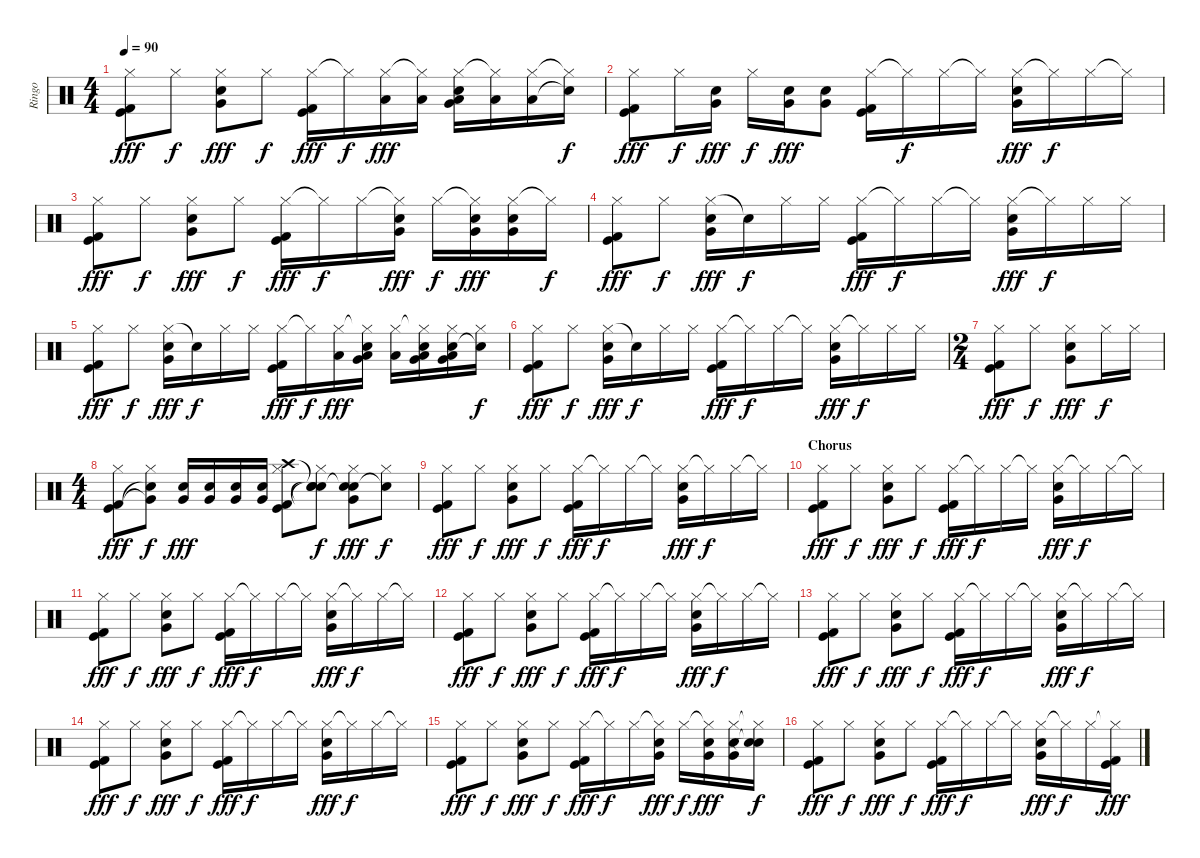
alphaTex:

\track ("Ringo" "Ringo") {instrument percussion}
\staff {score}
\articulation defaults
\ts (4 4)
\tempo 90
\clef neutral
\ks c
("Hi-Hat (closed)" "Kick (hit) 2" "Kick (hit)").8{dy fff} "Hi-Hat (closed)".8{dy f} ("Hi-Hat (closed)" "Snare (hit) 2" "Very Low Tom (hit)").8{dy fff} "Hi-Hat (closed)".8{dy f} ("Hi-Hat (closed)" "Kick (hit) 2" "Kick (hit)").16{dy fff} "Hi-Hat (closed)"{t}.16{dy f} ("Hi-Hat (closed)" "Low Floor Tom (hit)").16{dy fff} ("Hi-Hat (closed)"{t} "Low Floor Tom (hit)").16 ("Hi-Hat (closed)" "Snare (hit) 2" "Very Low Tom (hit)" "Low Floor Tom (hit)").16 ("Hi-Hat (closed)"{t} "Low Floor Tom (hit)").16 ("Hi-Hat (closed)" "Low Floor Tom (hit)").16 ("Hi-Hat (closed)"{t} "Snare (hit)"{t}).16{dy f} |
("Hi-Hat (closed)" "Kick (hit) 2" "Kick (hit)").8{dy fff} "Hi-Hat (closed)".16{dy f} ("Snare (hit) 2" "Very Low Tom (hit)").16{dy fff} "Hi-Hat (closed)".16{dy f} ("Snare (hit) 2" "Very Low Tom (hit)").16{dy fff} ("Snare (hit) 2" "Very Low Tom (hit)").8 ("Hi-Hat (closed)" "Kick (hit) 2" "Kick (hit)").16 "Hi-Hat (closed)"{t}.16{dy f} "Hi-Hat (closed)".16 "Hi-Hat (closed)"{t}.16 ("Hi-Hat (closed)" "Snare (hit) 2" "Very Low Tom (hit)").16{dy fff} "Hi-Hat (closed)"{t}.16{dy f} "Hi-Hat (closed)".16 "Hi-Hat (closed)"{t}.16 |
("Hi-Hat (closed)" "Kick (hit) 2" "Kick (hit)").8{dy fff} "Hi-Hat (closed)".8{dy f} ("Hi-Hat (closed)" "Snare (hit) 2" "Very Low Tom (hit)").8{dy fff} "Hi-Hat (closed)".8{dy f} ("Hi-Hat (closed)" "Kick (hit) 2" "Kick (hit)").16{dy fff} "Hi-Hat (closed)"{t}.16{dy f} "Hi-Hat (closed)".16 ("Hi-Hat (closed)"{t} "Snare (hit) 2" "Very Low Tom (hit)").16{dy fff} "Hi-Hat (closed)".16{dy f} ("Hi-Hat (closed)"{t} "Snare (hit) 2" "Very Low Tom (hit)").16{dy fff} ("Hi-Hat (closed)" "Snare (hit) 2" "Very Low Tom (hit)").16 "Hi-Hat (closed)"{t}.16{dy f} |
("Hi-Hat (closed)" "Kick (hit) 2" "Kick (hit)").8{dy fff} "Hi-Hat (closed)".8{dy f} ("Hi-Hat (closed)" "Snare (hit) 2" "Very Low Tom (hit)").16{dy fff} "Snare (hit)"{t}.16{dy f} "Hi-Hat (closed)".16 "Hi-Hat (closed)".16 ("Hi-Hat (closed)" "Kick (hit) 2" "Kick (hit)").16{dy fff} "Hi-Hat (closed)"{t}.16{dy f} "Hi-Hat (closed)".16 "Hi-Hat (closed)"{t}.16 ("Hi-Hat (closed)" "Snare (hit) 2" "Very Low Tom (hit)").16{dy fff} "Hi-Hat (closed)"{t}.16{dy f} "Hi-Hat (closed)".16 "Hi-Hat (closed)".16 |
("Hi-Hat (closed)" "Kick (hit) 2" "Kick (hit)").8{dy fff} "Hi-Hat (closed)".8{dy f} ("Hi-Hat (closed)" "Snare (hit) 2" "Very Low Tom (hit)").16{dy fff} "Snare (hit)"{t}.16{dy f} "Hi-Hat (closed)".16 "Hi-Hat (closed)".16 ("Hi-Hat (closed)" "Kick (hit) 2" "Kick (hit)").16{dy fff} "Hi-Hat (closed)"{t}.16{dy f} ("Hi-Hat (closed)" "Low Floor Tom (hit)").16{dy fff} ("Hi-Hat (closed)"{t} "Snare (hit) 2" "Very Low Tom (hit)" "Low Floor Tom (hit)").16 ("Hi-Hat (closed)" "Low Floor Tom (hit)").16 ("Hi-Hat (closed)"{t} "Snare (hit) 2" "Very Low Tom (hit)" "Low Floor Tom (hit)").16 ("Hi-Hat (closed)" "Snare (hit) 2" "Very Low Tom (hit)" "Low Floor Tom (hit)").16 ("Hi-Hat (closed)" "Snare (hit)"{t}).16{dy f} |
("Hi-Hat (closed)" "Kick (hit) 2" "Kick (hit)").8{dy fff} "Hi-Hat (closed)".8{dy f} ("Hi-Hat (closed)" "Snare (hit) 2" "Very Low Tom (hit)").16{dy fff} "Snare (hit)"{t}.16{dy f} "Hi-Hat (closed)".16 "Hi-Hat (closed)".16 ("Hi-Hat (closed)" "Kick (hit) 2" "Kick (hit)").16{dy fff} "Hi-Hat (closed)"{t}.16{dy f} "Hi-Hat (closed)".16 "Hi-Hat (closed)"{t}.16 ("Hi-Hat (closed)" "Snare (hit) 2" "Very Low Tom (hit)").16{dy fff} "Hi-Hat (closed)"{t}.16{dy f} "Hi-Hat (closed)".16 "Hi-Hat (closed)".16 |
\ts (2 4)
("Hi-Hat (closed)" "Kick (hit) 2" "Kick (hit)").8{dy fff} "Hi-Hat (closed)".8{dy f} ("Hi-Hat (closed)" "Snare (hit) 2" "Very Low Tom (hit)").8{dy fff} "Hi-Hat (closed)".16{dy f} "Hi-Hat (closed)".16 |
\ts (4 4)
("Hi-Hat (closed)" "Kick (hit) 2" "Kick (hit)").8{dy fff} ("Hi-Hat (closed)" "Very Low Tom (hit)"{t} "Snare (hit)"{t}).8{dy f} ("Snare (hit) 2" "Very Low Tom (hit)").16{dy fff} ("Snare (hit) 2" "Very Low Tom (hit)").16 ("Snare (hit) 2" "Very Low Tom (hit)").16 ("Snare (hit) 2" "Very Low Tom (hit)").16 ("Crash high (hit)" "Hi-Hat (closed)" "Kick (hit) 2" "Kick (hit)").8 ("Snare (hit)"{t} "Hi-Hat (closed)" "Snare (hit)"{t} "Snare (hit)"{t}).8{dy f} ("Snare (hit)"{t} "Hi-Hat (closed)" "Snare (hit) 2" "Very Low Tom (hit)").8{dy fff} ("Snare (hit)"{t} "Hi-Hat (closed)").8{dy f} |
("Hi-Hat (closed)" "Kick (hit) 2" "Kick (hit)").8{dy fff} "Hi-Hat (closed)".8{dy f} ("Hi-Hat (closed)" "Snare (hit) 2" "Very Low Tom (hit)").8{dy fff} "Hi-Hat (closed)".8{dy f} ("Hi-Hat (closed)" "Kick (hit) 2" "Kick (hit)").16{dy fff} "Hi-Hat (closed)"{t}.16{dy f} "Hi-Hat (closed)".16 "Hi-Hat (closed)"{t}.16 ("Hi-Hat (closed)" "Snare (hit) 2" "Very Low Tom (hit)").16{dy fff} "Hi-Hat (closed)"{t}.16{dy f} "Hi-Hat (closed)".16 "Hi-Hat (closed)"{t}.16 |
\section ("" "Chorus")
("Hi-Hat (closed)" "Kick (hit) 2" "Kick (hit)").8{dy fff} "Hi-Hat (closed)".8{dy f} ("Hi-Hat (closed)" "Snare (hit) 2" "Very Low Tom (hit)").8{dy fff} "Hi-Hat (closed)".8{dy f} ("Hi-Hat (closed)" "Kick (hit) 2" "Kick (hit)").16{dy fff} "Hi-Hat (closed)"{t}.16{dy f} "Hi-Hat (closed)".16 "Hi-Hat (closed)"{t}.16 ("Hi-Hat (closed)" "Snare (hit) 2" "Very Low Tom (hit)").16{dy fff} "Hi-Hat (closed)"{t}.16{dy f} "Hi-Hat (closed)".16 "Hi-Hat (closed)"{t}.16 |
("Hi-Hat (closed)" "Kick (hit) 2" "Kick (hit)").8{dy fff} "Hi-Hat (closed)".8{dy f} ("Hi-Hat (closed)" "Snare (hit) 2" "Very Low Tom (hit)").8{dy fff} "Hi-Hat (closed)".8{dy f} ("Hi-Hat (closed)" "Kick (hit) 2" "Kick (hit)").16{dy fff} "Hi-Hat (closed)"{t}.16{dy f} "Hi-Hat (closed)".16 "Hi-Hat (closed)"{t}.16 ("Hi-Hat (closed)" "Snare (hit) 2" "Very Low Tom (hit)").16{dy fff} "Hi-Hat (closed)"{t}.16{dy f} "Hi-Hat (closed)".16 "Hi-Hat (closed)"{t}.16 |
("Hi-Hat (closed)" "Kick (hit) 2" "Kick (hit)").8{dy fff} "Hi-Hat (closed)".8{dy f} ("Hi-Hat (closed)" "Snare (hit) 2" "Very Low Tom (hit)").8{dy fff} "Hi-Hat (closed)".8{dy f} ("Hi-Hat (closed)" "Kick (hit) 2" "Kick (hit)").16{dy fff} "Hi-Hat (closed)"{t}.16{dy f} "Hi-Hat (closed)".16 "Hi-Hat (closed)"{t}.16 ("Hi-Hat (closed)" "Snare (hit) 2" "Very Low Tom (hit)").16{dy fff} "Hi-Hat (closed)"{t}.16{dy f} "Hi-Hat (closed)".16 "Hi-Hat (closed)"{t}.16 |
("Hi-Hat (closed)" "Kick (hit) 2" "Kick (hit)").8{dy fff} "Hi-Hat (closed)".8{dy f} ("Hi-Hat (closed)" "Snare (hit) 2" "Very Low Tom (hit)").8{dy fff} "Hi-Hat (closed)".8{dy f} ("Hi-Hat (closed)" "Kick (hit) 2" "Kick (hit)").16{dy fff} "Hi-Hat (closed)"{t}.16{dy f} "Hi-Hat (closed)".16 "Hi-Hat (closed)"{t}.16 ("Hi-Hat (closed)" "Snare (hit) 2" "Very Low Tom (hit)").16{dy fff} "Hi-Hat (closed)"{t}.16{dy f} "Hi-Hat (closed)".16 "Hi-Hat (closed)"{t}.16 |
("Hi-Hat (closed)" "Kick (hit) 2" "Kick (hit)").8{dy fff} "Hi-Hat (closed)".8{dy f} ("Hi-Hat (closed)" "Snare (hit) 2" "Very Low Tom (hit)").8{dy fff} "Hi-Hat (closed)".8{dy f} ("Hi-Hat (closed)" "Kick (hit) 2" "Kick (hit)").16{dy fff} "Hi-Hat (closed)"{t}.16{dy f} "Hi-Hat (closed)".16 "Hi-Hat (closed)"{t}.16 ("Hi-Hat (closed)" "Snare (hit) 2" "Very Low Tom (hit)").16{dy fff} "Hi-Hat (closed)"{t}.16{dy f} "Hi-Hat (closed)".16 "Hi-Hat (closed)"{t}.16 |
("Hi-Hat (closed)" "Kick (hit) 2" "Kick (hit)").8{dy fff} "Hi-Hat (closed)".8{dy f} ("Hi-Hat (closed)" "Snare (hit) 2" "Very Low Tom (hit)").8{dy fff} "Hi-Hat (closed)".8{dy f} ("Hi-Hat (closed)" "Kick (hit) 2" "Kick (hit)").16{dy fff} "Hi-Hat (closed)"{t}.16{dy f} "Hi-Hat (closed)".16 ("Hi-Hat (closed)"{t} "Snare (hit) 2" "Very Low Tom (hit)").16{dy fff} "Hi-Hat (closed)".16{dy f} ("Hi-Hat (closed)"{t} "Snare (hit) 2" "Very Low Tom (hit)").16{dy fff} ("Hi-Hat (closed)" "Snare (hit) 2" "Very Low Tom (hit)").16 ("Hi-Hat (closed)"{t} "Snare (hit)"{t} "Snare (hit)"{t}).16{dy f} |
("Hi-Hat (closed)" "Kick (hit) 2" "Kick (hit)").8{dy fff} "Hi-Hat (closed)".8{dy f} ("Hi-Hat (closed)" "Snare (hit) 2" "Very Low Tom (hit)").8{dy fff} "Hi-Hat (closed)".8{dy f} ("Hi-Hat (closed)" "Kick (hit) 2" "Kick (hit)").16{dy fff} "Hi-Hat (closed)"{t}.16{dy f} "Hi-Hat (closed)".16 "Hi-Hat (closed)"{t}.16 ("Hi-Hat (closed)" "Snare (hit) 2" "Very Low Tom (hit)").16{dy fff} "Hi-Hat (closed)"{t}.16{dy f} "Hi-Hat (closed)".16 ("Hi-Hat (closed)"{t} "Kick (hit) 2" "Kick (hit)").16{dy fff}
